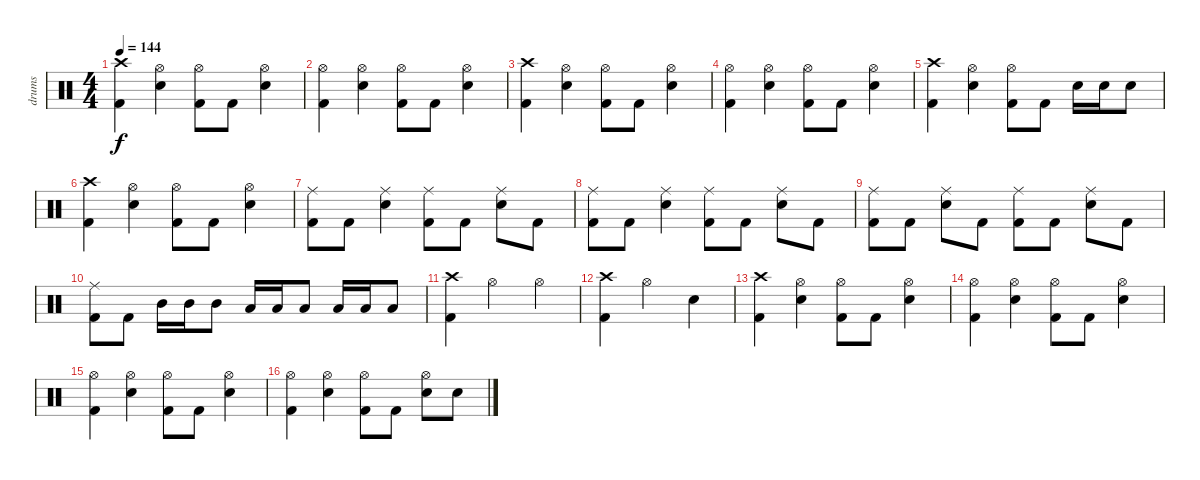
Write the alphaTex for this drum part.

\track ("drums" "drums") {instrument percussion}
\staff {score}
\articulation defaults
\ts (4 4)
\tempo 144
\clef neutral
\ks c
("Crash high (hit)" "Kick (hit) 2").4{dy f} ("Hi-Hat (open)" "Electric Snare (hit)").4 ("Hi-Hat (open)" "Kick (hit) 2").8 "Kick (hit) 2".8 ("Hi-Hat (open)" "Electric Snare (hit)").4 |
("Hi-Hat (open)" "Kick (hit) 2").4 ("Hi-Hat (open)" "Electric Snare (hit)").4 ("Hi-Hat (open)" "Kick (hit) 2").8 "Kick (hit) 2".8 ("Hi-Hat (open)" "Electric Snare (hit)").4 |
("Crash high (hit)" "Kick (hit) 2").4 ("Hi-Hat (open)" "Electric Snare (hit)").4 ("Hi-Hat (open)" "Kick (hit) 2").8 "Kick (hit) 2".8 ("Hi-Hat (open)" "Electric Snare (hit)").4 |
("Hi-Hat (open)" "Kick (hit) 2").4 ("Hi-Hat (open)" "Electric Snare (hit)").4 ("Hi-Hat (open)" "Kick (hit) 2").8 "Kick (hit) 2".8 ("Hi-Hat (open)" "Electric Snare (hit)").4 |
("Crash high (hit)" "Kick (hit) 2").4 ("Hi-Hat (open)" "Electric Snare (hit)").4 ("Hi-Hat (open)" "Kick (hit) 2").8 "Kick (hit) 2".8 "Electric Snare (hit)".16 "Electric Snare (hit)".16 "Electric Snare (hit)".8 |
("Crash high (hit)" "Kick (hit) 2").4 ("Hi-Hat (open)" "Electric Snare (hit)").4 ("Hi-Hat (open)" "Kick (hit) 2").8 "Kick (hit) 2".8 ("Hi-Hat (open)" "Electric Snare (hit)").4 |
("Ride (middle)" "Kick (hit) 2").8 "Kick (hit) 2".8 ("Ride (middle)" "Electric Snare (hit)").4 ("Ride (middle)" "Kick (hit) 2").8 "Kick (hit) 2".8 ("Ride (middle)" "Electric Snare (hit)").8 "Kick (hit) 2".8 |
("Ride (middle)" "Kick (hit) 2").8 "Kick (hit) 2".8 ("Ride (middle)" "Electric Snare (hit)").4 ("Ride (middle)" "Kick (hit) 2").8 "Kick (hit) 2".8 ("Ride (middle)" "Electric Snare (hit)").8 "Kick (hit) 2".8 |
("Ride (middle)" "Kick (hit) 2").8 "Kick (hit) 2".8 ("Ride (middle)" "Electric Snare (hit)").8 "Kick (hit) 2".8 ("Ride (middle)" "Kick (hit) 2").8 "Kick (hit) 2".8 ("Ride (middle)" "Electric Snare (hit)").8 "Kick (hit) 2".8 |
("Ride (middle)" "Kick (hit) 2").8 "Kick (hit) 2".8 "Mid Tom (hit)".16 "Mid Tom (hit)".16 "Mid Tom (hit)".8 "Low Tom (hit)".16 "Low Tom (hit)".16 "Low Tom (hit)".8 "Low Floor Tom (hit)".16 "Low Floor Tom (hit)".16 "Low Floor Tom (hit)".8 |
("Crash high (hit)" "Kick (hit) 2").4 "Hi-Hat (open)".2 "Hi-Hat (open)".4 |
("Crash high (hit)" "Kick (hit) 2").4 "Hi-Hat (open)".2 "Electric Snare (hit)".4 |
("Crash high (hit)" "Kick (hit) 2").4 ("Hi-Hat (open)" "Electric Snare (hit)").4 ("Hi-Hat (open)" "Kick (hit) 2").8 "Kick (hit) 2".8 ("Hi-Hat (open)" "Electric Snare (hit)").4 |
("Hi-Hat (open)" "Kick (hit) 2").4 ("Hi-Hat (open)" "Electric Snare (hit)").4 ("Hi-Hat (open)" "Kick (hit) 2").8 "Kick (hit) 2".8 ("Hi-Hat (open)" "Electric Snare (hit)").4 |
("Hi-Hat (open)" "Kick (hit) 2").4 ("Hi-Hat (open)" "Electric Snare (hit)").4 ("Hi-Hat (open)" "Kick (hit) 2").8 "Kick (hit) 2".8 ("Hi-Hat (open)" "Electric Snare (hit)").4 |
("Hi-Hat (open)" "Kick (hit) 2").4 ("Hi-Hat (open)" "Electric Snare (hit)").4 ("Hi-Hat (open)" "Kick (hit) 2").8 "Kick (hit) 2".8 ("Hi-Hat (open)" "Electric Snare (hit)").8 "Electric Snare (hit)".8
